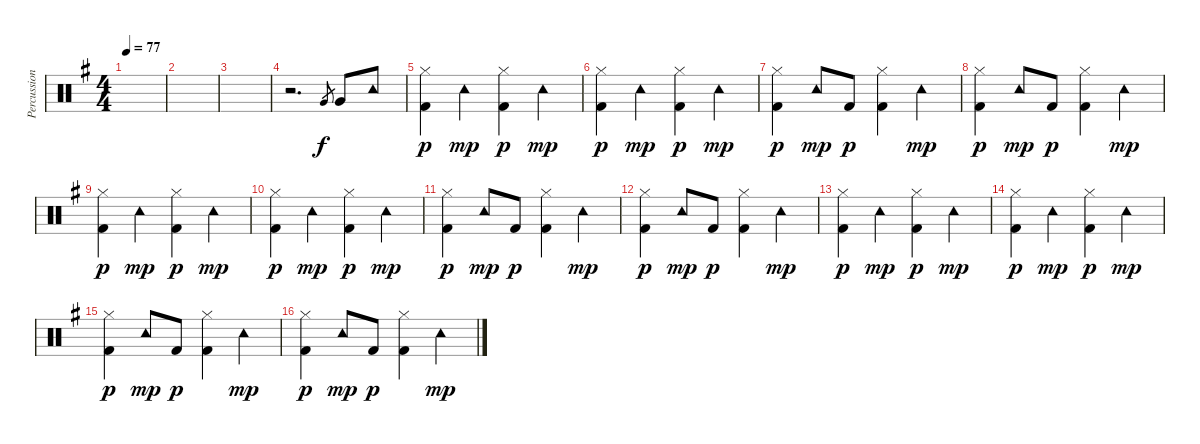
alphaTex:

\track ("Percussion" "Percussion") {instrument percussion}
\staff {score}
\articulation defaults
\ts (4 4)
\tempo 77
\clef neutral
\ks g
|
|
|
r.2{d} "Very Low Tom (hit)".8{gr} "Very Low Tom (hit)".8 "Tambourine (hit)".8 |
("Hi-Hat (closed)" "Kick (hit) 2").4{dy p} "Tambourine (hit)".4{dy mp} ("Hi-Hat (closed)" "Kick (hit) 2").4{dy p} "Tambourine (hit)".4{dy mp} |
("Hi-Hat (closed)" "Kick (hit) 2").4{dy p} "Tambourine (hit)".4{dy mp} ("Hi-Hat (closed)" "Kick (hit) 2").4{dy p} "Tambourine (hit)".4{dy mp} |
("Hi-Hat (closed)" "Kick (hit) 2").4{dy p} "Tambourine (hit)".8{dy mp} "Kick (hit) 2".8{dy p} ("Hi-Hat (closed)" "Kick (hit) 2").4 "Tambourine (hit)".4{dy mp} |
("Hi-Hat (closed)" "Kick (hit) 2").4{dy p} "Tambourine (hit)".8{dy mp} "Kick (hit) 2".8{dy p} ("Hi-Hat (closed)" "Kick (hit) 2").4 "Tambourine (hit)".4{dy mp} |
("Hi-Hat (closed)" "Kick (hit) 2").4{dy p} "Tambourine (hit)".4{dy mp} ("Hi-Hat (closed)" "Kick (hit) 2").4{dy p} "Tambourine (hit)".4{dy mp} |
("Hi-Hat (closed)" "Kick (hit) 2").4{dy p} "Tambourine (hit)".4{dy mp} ("Hi-Hat (closed)" "Kick (hit) 2").4{dy p} "Tambourine (hit)".4{dy mp} |
("Hi-Hat (closed)" "Kick (hit) 2").4{dy p} "Tambourine (hit)".8{dy mp} "Kick (hit) 2".8{dy p} ("Hi-Hat (closed)" "Kick (hit) 2").4 "Tambourine (hit)".4{dy mp} |
("Hi-Hat (closed)" "Kick (hit) 2").4{dy p} "Tambourine (hit)".8{dy mp} "Kick (hit) 2".8{dy p} ("Hi-Hat (closed)" "Kick (hit) 2").4 "Tambourine (hit)".4{dy mp} |
("Hi-Hat (closed)" "Kick (hit) 2").4{dy p} "Tambourine (hit)".4{dy mp} ("Hi-Hat (closed)" "Kick (hit) 2").4{dy p} "Tambourine (hit)".4{dy mp} |
("Hi-Hat (closed)" "Kick (hit) 2").4{dy p} "Tambourine (hit)".4{dy mp} ("Hi-Hat (closed)" "Kick (hit) 2").4{dy p} "Tambourine (hit)".4{dy mp} |
("Hi-Hat (closed)" "Kick (hit) 2").4{dy p} "Tambourine (hit)".8{dy mp} "Kick (hit) 2".8{dy p} ("Hi-Hat (closed)" "Kick (hit) 2").4 "Tambourine (hit)".4{dy mp} |
("Hi-Hat (closed)" "Kick (hit) 2").4{dy p} "Tambourine (hit)".8{dy mp} "Kick (hit) 2".8{dy p} ("Hi-Hat (closed)" "Kick (hit) 2").4 "Tambourine (hit)".4{dy mp}
